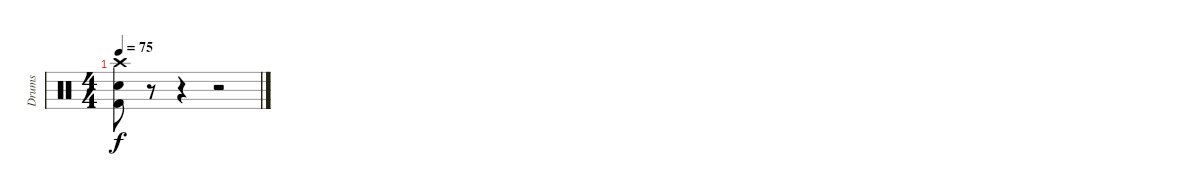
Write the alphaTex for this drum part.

\track ("Drums" "Drums") {instrument percussion}
\staff {score}
\articulation defaults
\ts (4 4)
\tempo 75
\clef neutral
\ks c
("Crash high (hit)" "Electric Snare (hit)" "Kick (hit) 2").8{dy f} r.8 r.4 r.2
